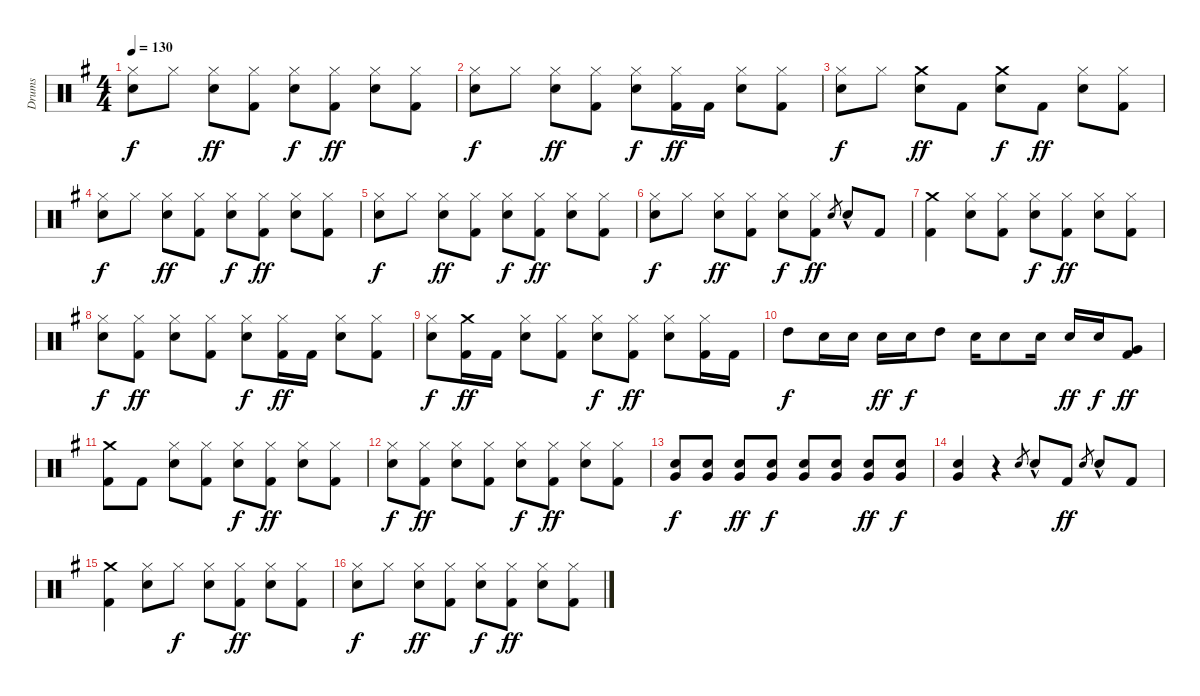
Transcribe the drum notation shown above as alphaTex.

\track ("Drums" "Drums") {instrument percussion}
\staff {score}
\articulation defaults
\ts (4 4)
\tempo 130
\clef neutral
\ks g
("Snare (hit) 2" "Hi-Hat (closed)").8{dy f} "Hi-Hat (closed)".8 ("Snare (hit) 2" "Hi-Hat (closed)").8{dy ff} ("Kick (hit) 2" "Hi-Hat (closed)").8 ("Snare (hit) 2" "Hi-Hat (closed)").8{dy f} ("Kick (hit) 2" "Hi-Hat (closed)").8{dy ff} ("Snare (hit) 2" "Hi-Hat (closed)").8 ("Kick (hit) 2" "Hi-Hat (closed)").8 |
("Snare (hit) 2" "Hi-Hat (closed)").8{dy f} "Hi-Hat (closed)".8 ("Snare (hit) 2" "Hi-Hat (closed)").8{dy ff} ("Kick (hit) 2" "Hi-Hat (closed)").8 ("Snare (hit) 2" "Hi-Hat (closed)").8{dy f} ("Kick (hit) 2" "Hi-Hat (closed)").16{dy ff} "Kick (hit) 2".16 ("Snare (hit) 2" "Hi-Hat (closed)").8 ("Kick (hit) 2" "Hi-Hat (closed)").8 |
("Snare (hit) 2" "Hi-Hat (closed)").8{dy f} "Hi-Hat (closed)".8 ("Snare (hit) 2" "Crash medium (hit)").8{dy ff} "Kick (hit) 2".8 ("Snare (hit) 2" "Crash medium (hit)").8{dy f} "Kick (hit) 2".8{dy ff} ("Snare (hit) 2" "Hi-Hat (closed)").8 ("Kick (hit) 2" "Hi-Hat (closed)").8 |
("Snare (hit) 2" "Hi-Hat (closed)").8{dy f} "Hi-Hat (closed)".8 ("Snare (hit) 2" "Hi-Hat (closed)").8{dy ff} ("Kick (hit) 2" "Hi-Hat (closed)").8 ("Snare (hit) 2" "Hi-Hat (closed)").8{dy f} ("Kick (hit) 2" "Hi-Hat (closed)").8{dy ff} ("Snare (hit) 2" "Hi-Hat (closed)").8 ("Kick (hit) 2" "Hi-Hat (closed)").8 |
("Snare (hit) 2" "Hi-Hat (closed)").8{dy f} "Hi-Hat (closed)".8 ("Snare (hit) 2" "Hi-Hat (closed)").8{dy ff} ("Kick (hit) 2" "Hi-Hat (closed)").8 ("Snare (hit) 2" "Hi-Hat (closed)").8{dy f} ("Kick (hit) 2" "Hi-Hat (closed)").8{dy ff} ("Snare (hit) 2" "Hi-Hat (closed)").8 ("Kick (hit) 2" "Hi-Hat (closed)").8 |
("Snare (hit) 2" "Hi-Hat (closed)").8{dy f} "Hi-Hat (closed)".8 ("Snare (hit) 2" "Hi-Hat (closed)").8{dy ff} ("Kick (hit) 2" "Hi-Hat (closed)").8 ("Snare (hit) 2" "Hi-Hat (closed)").8{dy f} ("Kick (hit) 2" "Hi-Hat (closed)").8{dy ff} "Snare (hit) 2".8{gr} "Snare (hit) 2"{hac}.8 "Kick (hit) 2".8 |
("Kick (hit) 2" "Crash medium (hit)").4 ("Snare (hit) 2" "Hi-Hat (closed)").8 ("Kick (hit) 2" "Hi-Hat (closed)").8 ("Snare (hit) 2" "Hi-Hat (closed)").8{dy f} ("Kick (hit) 2" "Hi-Hat (closed)").8{dy ff} ("Snare (hit) 2" "Hi-Hat (closed)").8 ("Kick (hit) 2" "Hi-Hat (closed)").8 |
("Snare (hit) 2" "Hi-Hat (closed)").8{dy f} ("Kick (hit) 2" "Hi-Hat (closed)").8{dy ff} ("Snare (hit) 2" "Hi-Hat (closed)").8 ("Kick (hit) 2" "Hi-Hat (closed)").8 ("Snare (hit) 2" "Hi-Hat (closed)").8{dy f} ("Kick (hit) 2" "Hi-Hat (closed)").16{dy ff} "Kick (hit) 2".16 ("Snare (hit) 2" "Hi-Hat (closed)").8 ("Kick (hit) 2" "Hi-Hat (closed)").8 |
("Snare (hit) 2" "Hi-Hat (closed)").8{dy f} ("Kick (hit) 2" "Crash medium (hit)").16{dy ff} "Kick (hit) 2".16 ("Snare (hit) 2" "Hi-Hat (closed)").8 ("Kick (hit) 2" "Hi-Hat (closed)").8 ("Snare (hit) 2" "Hi-Hat (closed)").8{dy f} ("Kick (hit) 2" "Hi-Hat (closed)").8{dy ff} ("Snare (hit) 2" "Hi-Hat (closed)").8 ("Kick (hit) 2" "Hi-Hat (closed)").16 "Kick (hit) 2".16 |
"High Tom (hit)".8{dy f} "Snare (hit) 2".16 "Snare (hit) 2".16 "Snare (hit) 2".16{dy ff} "Snare (hit) 2".16{dy f} "High Tom (hit)".8 "Snare (hit) 2".16 "Snare (hit) 2".8 "Snare (hit) 2".16 "Snare (hit) 2".16{dy ff} "Snare (hit) 2".16{dy f} ("Kick (hit) 2" "Very Low Tom (hit)").8{dy ff} |
("Kick (hit) 2" "Crash medium (hit)").8 "Kick (hit) 2".8 ("Snare (hit) 2" "Hi-Hat (closed)").8 ("Hi-Hat (closed)" "Kick (hit) 2").8 ("Snare (hit) 2" "Hi-Hat (closed)").8{dy f} ("Kick (hit) 2" "Hi-Hat (closed)").8{dy ff} ("Snare (hit) 2" "Hi-Hat (closed)").8 ("Kick (hit) 2" "Hi-Hat (closed)").8 |
("Snare (hit) 2" "Hi-Hat (closed)").8{dy f} ("Kick (hit) 2" "Hi-Hat (closed)").8{dy ff} ("Snare (hit) 2" "Hi-Hat (closed)").8 ("Kick (hit) 2" "Hi-Hat (closed)").8 ("Snare (hit) 2" "Hi-Hat (closed)").8{dy f} ("Kick (hit) 2" "Hi-Hat (closed)").8{dy ff} ("Snare (hit) 2" "Hi-Hat (closed)").8 ("Kick (hit) 2" "Hi-Hat (closed)").8 |
("Very Low Tom (hit)" "Snare (hit) 2").8{dy f} ("Very Low Tom (hit)" "Snare (hit) 2").8 ("Very Low Tom (hit)" "Snare (hit) 2").8{dy ff} ("Very Low Tom (hit)" "Snare (hit) 2").8{dy f} ("Very Low Tom (hit)" "Snare (hit) 2").8 ("Very Low Tom (hit)" "Snare (hit) 2").8 ("Very Low Tom (hit)" "Snare (hit) 2").8{dy ff} ("Very Low Tom (hit)" "Snare (hit) 2").8{dy f} |
("Very Low Tom (hit)" "Snare (hit) 2").4 r.4 "Snare (hit) 2".8{gr} "Snare (hit) 2"{hac}.8 "Kick (hit) 2".8{dy ff} "Snare (hit) 2".8{gr} "Snare (hit) 2"{hac}.8 "Kick (hit) 2".8 |
("Kick (hit) 2" "Crash medium (hit)").4 ("Snare (hit) 2" "Hi-Hat (closed)").8 "Hi-Hat (closed)".8{dy f} ("Snare (hit) 2" "Hi-Hat (closed)").8 ("Kick (hit) 2" "Hi-Hat (closed)").8{dy ff} ("Snare (hit) 2" "Hi-Hat (closed)").8 ("Kick (hit) 2" "Hi-Hat (closed)").8 |
("Snare (hit) 2" "Hi-Hat (closed)").8{dy f} "Hi-Hat (closed)".8 ("Snare (hit) 2" "Hi-Hat (closed)").8{dy ff} ("Kick (hit) 2" "Hi-Hat (closed)").8 ("Snare (hit) 2" "Hi-Hat (closed)").8{dy f} ("Kick (hit) 2" "Hi-Hat (closed)").8{dy ff} ("Snare (hit) 2" "Hi-Hat (closed)").8 ("Kick (hit) 2" "Hi-Hat (closed)").8
